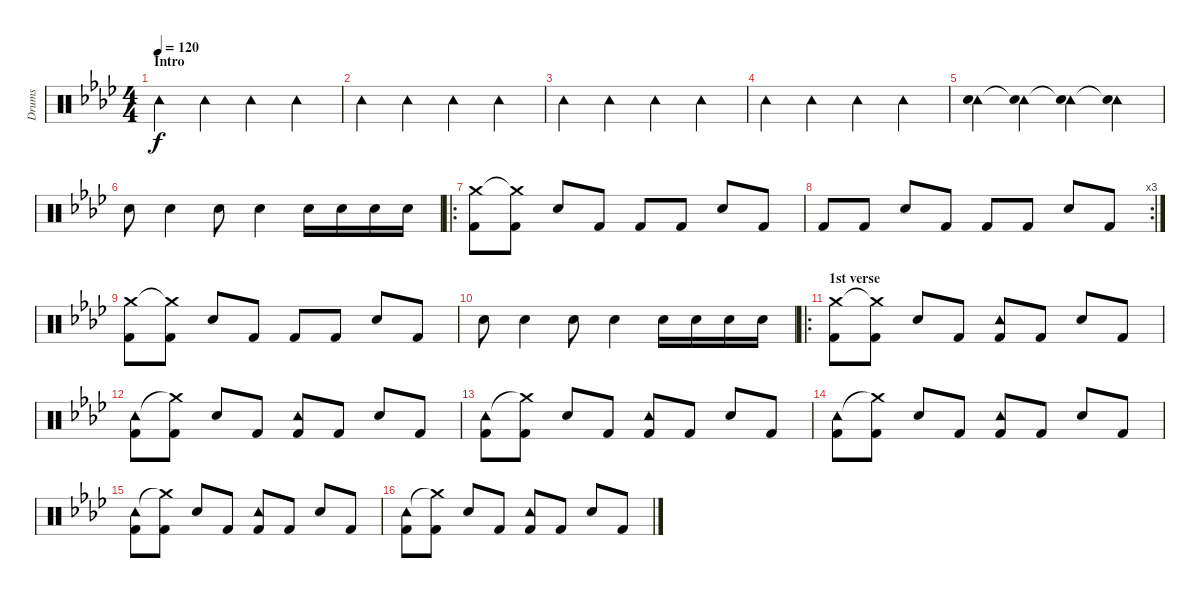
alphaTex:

\track ("Drums" "Drums") {instrument percussion}
\staff {score}
\articulation defaults
\ts (4 4)
\section ("" "Intro")
\tempo 120
\clef neutral
\ks ab "Tambourine (hit)".4{dy f} "Tambourine (hit)".4 "Tambourine (hit)".4 "Tambourine (hit)".4
|
"Tambourine (hit)".4 "Tambourine (hit)".4 "Tambourine (hit)".4 "Tambourine (hit)".4 |
"Tambourine (hit)".4 "Tambourine (hit)".4 "Tambourine (hit)".4 "Tambourine (hit)".4 |
"Tambourine (hit)".4 "Tambourine (hit)".4 "Tambourine (hit)".4 "Tambourine (hit)".4 |
("Tambourine (hit)" "Snare (hit) 2").4 ("Tambourine (hit)" "Snare (hit) 2"{t}).4 ("Tambourine (hit)" "Snare (hit) 2"{t}).4 ("Tambourine (hit)" "Snare (hit) 2"{t}).4 |
"Snare (hit) 2".8 "Electric Snare (hit)".4 "Snare (hit) 2".8 "Electric Snare (hit)".4 "Electric Snare (hit)".16 "Electric Snare (hit)".16 "Electric Snare (hit)".16 "Electric Snare (hit)".16 |
\ro
("Crash medium (hit)" "Kick (hit) 2").8 ("Crash medium (hit)"{t} "Kick (hit) 2").8 "Snare (hit) 2".8 "Kick (hit) 2".8 "Kick (hit) 2".8 "Kick (hit) 2".8 "Snare (hit) 2".8 "Kick (hit) 2".8 |
\rc 3 "Kick (hit) 2".8 "Kick (hit) 2".8 "Snare (hit) 2".8 "Kick (hit) 2".8 "Kick (hit) 2".8 "Kick (hit) 2".8 "Snare (hit) 2".8 "Kick (hit) 2".8
|
("Crash medium (hit)" "Kick (hit) 2").8 ("Crash medium (hit)"{t} "Kick (hit) 2").8 "Snare (hit) 2".8 "Kick (hit) 2".8 "Kick (hit) 2".8 "Kick (hit) 2".8 "Snare (hit) 2".8 "Kick (hit) 2".8 |
"Snare (hit) 2".8 "Electric Snare (hit)".4 "Snare (hit) 2".8 "Electric Snare (hit)".4 "Electric Snare (hit)".16 "Electric Snare (hit)".16 "Electric Snare (hit)".16 "Electric Snare (hit)".16 |
\ro
\section ("" "1st verse")
("Crash medium (hit)" "Kick (hit) 2").8 ("Crash medium (hit)"{t} "Kick (hit) 2").8 "Snare (hit) 2".8 "Kick (hit) 2".8 ("Tambourine (hit)" "Kick (hit) 2").8 "Kick (hit) 2".8 "Snare (hit) 2".8 "Kick (hit) 2".8 |
("Tambourine (hit)" "Kick (hit) 2").8 ("Crash medium (hit)"{t} "Kick (hit) 2").8 "Snare (hit) 2".8 "Kick (hit) 2".8 ("Tambourine (hit)" "Kick (hit) 2").8 "Kick (hit) 2".8 "Snare (hit) 2".8 "Kick (hit) 2".8 |
("Tambourine (hit)" "Kick (hit) 2").8 ("Crash medium (hit)"{t} "Kick (hit) 2").8 "Snare (hit) 2".8 "Kick (hit) 2".8 ("Tambourine (hit)" "Kick (hit) 2").8 "Kick (hit) 2".8 "Snare (hit) 2".8 "Kick (hit) 2".8 |
("Tambourine (hit)" "Kick (hit) 2").8 ("Crash medium (hit)"{t} "Kick (hit) 2").8 "Snare (hit) 2".8 "Kick (hit) 2".8 ("Tambourine (hit)" "Kick (hit) 2").8 "Kick (hit) 2".8 "Snare (hit) 2".8 "Kick (hit) 2".8 |
("Tambourine (hit)" "Kick (hit) 2").8 ("Crash medium (hit)"{t} "Kick (hit) 2").8 "Snare (hit) 2".8 "Kick (hit) 2".8 ("Tambourine (hit)" "Kick (hit) 2").8 "Kick (hit) 2".8 "Snare (hit) 2".8 "Kick (hit) 2".8 |
("Tambourine (hit)" "Kick (hit) 2").8 ("Crash medium (hit)"{t} "Kick (hit) 2").8 "Snare (hit) 2".8 "Kick (hit) 2".8 ("Tambourine (hit)" "Kick (hit) 2").8 "Kick (hit) 2".8 "Snare (hit) 2".8 "Kick (hit) 2".8
